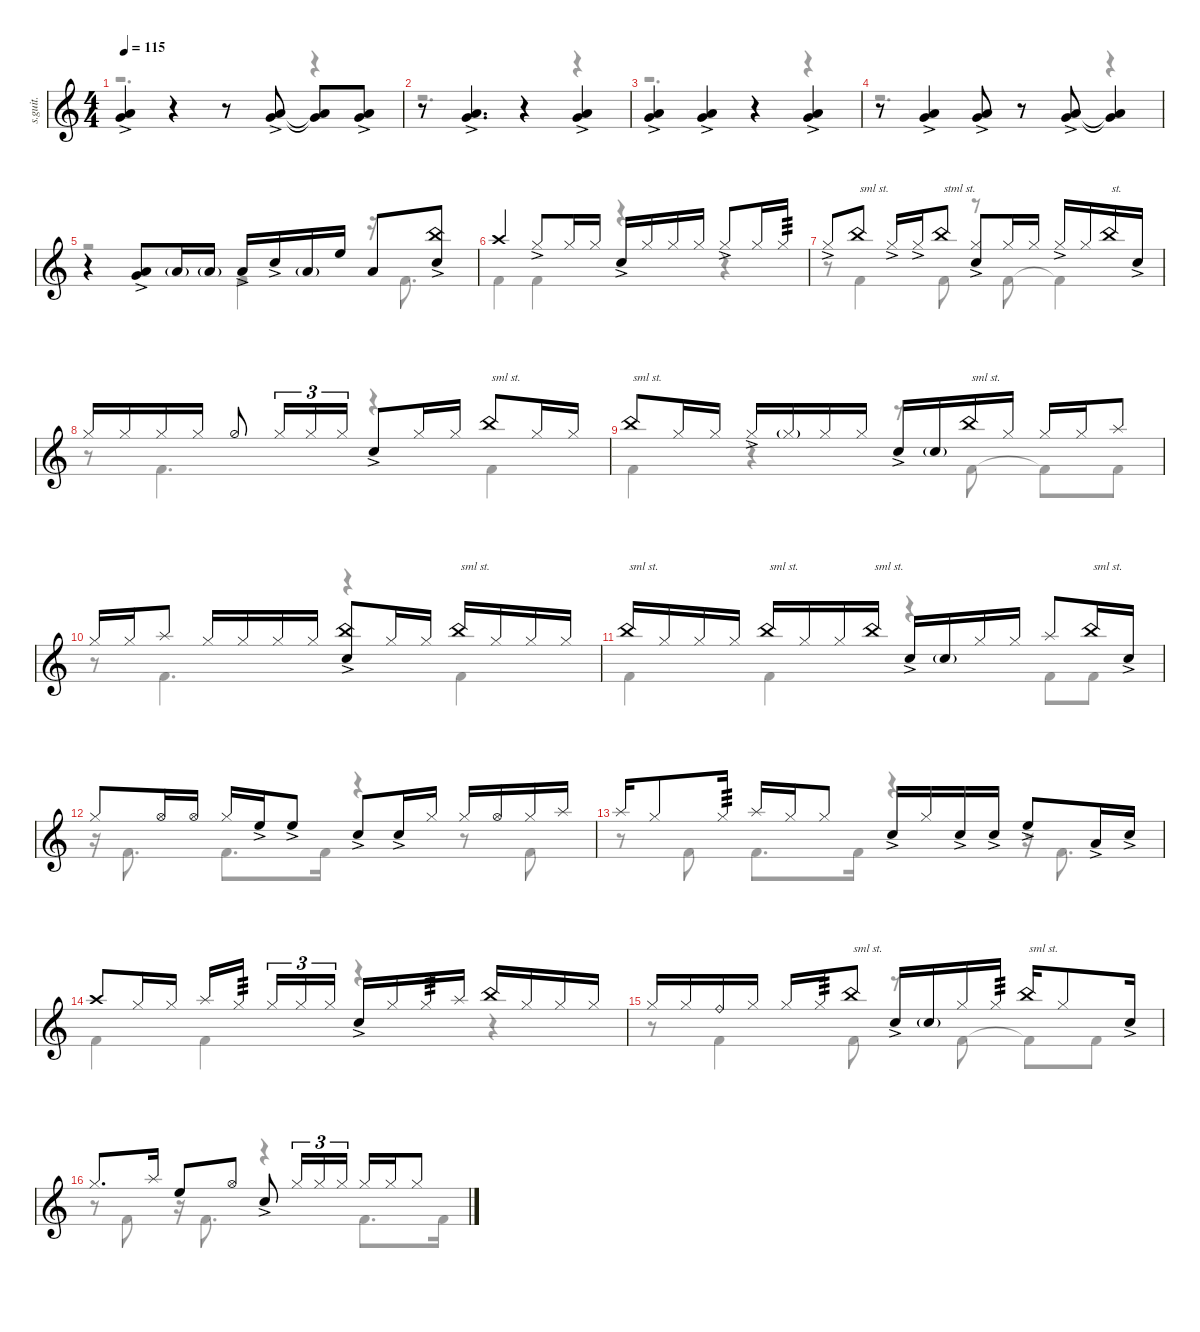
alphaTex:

\defaultSystemsLayout 4
\hideDynamics
\bracketExtendMode nobrackets
\track ("Percussion" "s.guit.") {instrument percussion}
\staff {score}
\articulation defaults
\voice
\ts (4 4)
\tempo 115
\clef g2
\ks c
("Very Low Tom (hit)"{ac} "Low Tom (hit)"{ac}).4{lyrics (0 "") lyrics (1 "") lyrics (2 "") lyrics (3 "") lyrics (4 "") dy mf} r.4 r.8 ("Very Low Tom (hit)"{ac} "Low Tom (hit)"{ac}).8{lyrics (0 "") lyrics (1 "") lyrics (2 "") lyrics (3 "") lyrics (4 "")} ("Very Low Tom (hit)"{t} "Low Tom (hit)"{t}).8{lyrics (0 "") lyrics (1 "") lyrics (2 "") lyrics (3 "") lyrics (4 "") dy f} ("Very Low Tom (hit)"{ac} "Low Tom (hit)"{ac}).8{lyrics (0 "") lyrics (1 "") lyrics (2 "") lyrics (3 "") lyrics (4 "") dy mf} |
r.8 ("Very Low Tom (hit)"{ac} "Low Tom (hit)"{ac}).4{d lyrics (0 "") lyrics (1 "") lyrics (2 "") lyrics (3 "") lyrics (4 "")} r.4 ("Low Tom (hit)"{ac} "Very Low Tom (hit)"{ac}).4{lyrics (0 "") lyrics (1 "") lyrics (2 "") lyrics (3 "") lyrics (4 "")} |
("Low Tom (hit)"{ac} "Very Low Tom (hit)"{ac}).4{lyrics (0 "") lyrics (1 "") lyrics (2 "") lyrics (3 "") lyrics (4 "")} ("Very Low Tom (hit)"{ac} "Low Tom (hit)"{ac}).4{lyrics (0 "") lyrics (1 "") lyrics (2 "") lyrics (3 "") lyrics (4 "")} r.4 ("Very Low Tom (hit)"{ac} "Low Tom (hit)"{ac}).4{lyrics (0 "") lyrics (1 "") lyrics (2 "") lyrics (3 "") lyrics (4 "")} |
r.8 ("Very Low Tom (hit)"{ac} "Low Tom (hit)"{ac}).4{lyrics (0 "") lyrics (1 "") lyrics (2 "") lyrics (3 "") lyrics (4 "")} ("Very Low Tom (hit)"{ac} "Low Tom (hit)"{ac}).8{lyrics (0 "") lyrics (1 "") lyrics (2 "") lyrics (3 "") lyrics (4 "")} r.8 ("Very Low Tom (hit)"{ac} "Low Tom (hit)"{ac}).8{lyrics (0 "") lyrics (1 "") lyrics (2 "") lyrics (3 "") lyrics (4 "")} ("Very Low Tom (hit)"{t} "Low Tom (hit)"{t}).4{lyrics (0 "") lyrics (1 "") lyrics (2 "") lyrics (3 "") lyrics (4 "") dy f} |
r.4 ("Very Low Tom (hit)"{ac} "Low Tom (hit)"{ac}).8{lyrics (0 "") lyrics (1 "") lyrics (2 "") lyrics (3 "") lyrics (4 "") dy mf} "Low Tom (hit)"{g}.16{lyrics (0 "") lyrics (1 "") lyrics (2 "") lyrics (3 "") lyrics (4 "") dy ff} "Low Tom (hit)"{g}.16{lyrics (0 "") lyrics (1 "") lyrics (2 "") lyrics (3 "") lyrics (4 "")} "Low Tom (hit)"{ac}.16{lyrics (0 "") lyrics (1 "") lyrics (2 "") lyrics (3 "") lyrics (4 "") dy mf} "Snare (hit) 2"{ac}.16{lyrics (0 "") lyrics (1 "") lyrics (2 "") lyrics (3 "") lyrics (4 "")} "Low Tom (hit)"{g}.16{lyrics (0 "") lyrics (1 "") lyrics (2 "") lyrics (3 "") lyrics (4 "") dy ff} "High Floor Tom (hit)".16{lyrics (0 "") lyrics (1 "") lyrics (2 "") lyrics (3 "") lyrics (4 "") dy f} "Low Tom (hit)".8{lyrics (0 "") lyrics (1 "") lyrics (2 "") lyrics (3 "") lyrics (4 "")} ("Snare (hit) 2"{ac} "China (hit)").8{lyrics (0 "") lyrics (1 "") lyrics (2 "") lyrics (3 "") lyrics (4 "")} |
"Crash high (hit)".4{lyrics (0 "") lyrics (1 "") lyrics (2 "") lyrics (3 "") lyrics (4 "") dy mf} "Hi-Hat (closed)"{ac}.8{lyrics (0 "") lyrics (1 "") lyrics (2 "") lyrics (3 "") lyrics (4 "") dy mp} "Hi-Hat (closed)".16{lyrics (0 "") lyrics (1 "") lyrics (2 "") lyrics (3 "") lyrics (4 "") dy mf} "Hi-Hat (closed)".16{lyrics (0 "") lyrics (1 "") lyrics (2 "") lyrics (3 "") lyrics (4 "")} "Snare (hit) 2"{ac}.16{lyrics (0 "") lyrics (1 "") lyrics (2 "") lyrics (3 "") lyrics (4 "") dy mp} "Hi-Hat (closed)".16{lyrics (0 "") lyrics (1 "") lyrics (2 "") lyrics (3 "") lyrics (4 "") dy mf} "Hi-Hat (closed)".16{lyrics (0 "") lyrics (1 "") lyrics (2 "") lyrics (3 "") lyrics (4 "")} "Hi-Hat (closed)".16{lyrics (0 "") lyrics (1 "") lyrics (2 "") lyrics (3 "") lyrics (4 "")} "Hi-Hat (closed)"{ac}.8{lyrics (0 "") lyrics (1 "") lyrics (2 "") lyrics (3 "") lyrics (4 "") dy mp} "Hi-Hat (closed)".16{lyrics (0 "") lyrics (1 "") lyrics (2 "") lyrics (3 "") lyrics (4 "") dy mf} "Hi-Hat (closed)".16{lyrics (0 "") lyrics (1 "") lyrics (2 "") lyrics (3 "") lyrics (4 "") tp 3} |
"Hi-Hat (closed)"{ac}.8{lyrics (0 "") lyrics (1 "") lyrics (2 "") lyrics (3 "") lyrics (4 "") dy mp} "China (hit)".8{txt "sml st." lyrics (0 "") lyrics (1 "") lyrics (2 "") lyrics (3 "") lyrics (4 "") dy mf} "Hi-Hat (closed)"{ac}.16{lyrics (0 "") lyrics (1 "") lyrics (2 "") lyrics (3 "") lyrics (4 "") dy mp} "Hi-Hat (closed)"{ac}.16{lyrics (0 "") lyrics (1 "") lyrics (2 "") lyrics (3 "") lyrics (4 "")} "China (hit)".8{txt "stml st." lyrics (0 "") lyrics (1 "") lyrics (2 "") lyrics (3 "") lyrics (4 "") dy mf} ("Snare (hit) 2"{ac} "Hi-Hat (closed)").8{lyrics (0 "") lyrics (1 "") lyrics (2 "") lyrics (3 "") lyrics (4 "")} "Hi-Hat (closed)".16{lyrics (0 "") lyrics (1 "") lyrics (2 "") lyrics (3 "") lyrics (4 "")} "Hi-Hat (closed)".16{lyrics (0 "") lyrics (1 "") lyrics (2 "") lyrics (3 "") lyrics (4 "")} "Hi-Hat (closed)"{ac}.16{lyrics (0 "") lyrics (1 "") lyrics (2 "") lyrics (3 "") lyrics (4 "") dy mp} "Hi-Hat (closed)".16{lyrics (0 "") lyrics (1 "") lyrics (2 "") lyrics (3 "") lyrics (4 "") dy mf} "China (hit)".16{txt "st." lyrics (0 "") lyrics (1 "") lyrics (2 "") lyrics (3 "") lyrics (4 "")} "Snare (hit) 2"{ac}.16{lyrics (0 "") lyrics (1 "") lyrics (2 "") lyrics (3 "") lyrics (4 "") dy mp} |
"Hi-Hat (closed)".16{lyrics (0 "") lyrics (1 "") lyrics (2 "") lyrics (3 "") lyrics (4 "") dy mf} "Hi-Hat (closed)".16{lyrics (0 "") lyrics (1 "") lyrics (2 "") lyrics (3 "") lyrics (4 "")} "Hi-Hat (closed)".16{lyrics (0 "") lyrics (1 "") lyrics (2 "") lyrics (3 "") lyrics (4 "")} "Hi-Hat (closed)".16{lyrics (0 "") lyrics (1 "") lyrics (2 "") lyrics (3 "") lyrics (4 "")} "Hi-Hat (half)".8{lyrics (0 "") lyrics (1 "") lyrics (2 "") lyrics (3 "") lyrics (4 "")} "Hi-Hat (closed)".16{tu (3 2) lyrics (0 "") lyrics (1 "") lyrics (2 "") lyrics (3 "") lyrics (4 "")} "Hi-Hat (closed)".16{tu (3 2) lyrics (0 "") lyrics (1 "") lyrics (2 "") lyrics (3 "") lyrics (4 "")} "Hi-Hat (closed)".16{tu (3 2) lyrics (0 "") lyrics (1 "") lyrics (2 "") lyrics (3 "") lyrics (4 "")} "Snare (hit) 2"{ac}.8{lyrics (0 "") lyrics (1 "") lyrics (2 "") lyrics (3 "") lyrics (4 "") dy mp} "Hi-Hat (closed)".16{lyrics (0 "") lyrics (1 "") lyrics (2 "") lyrics (3 "") lyrics (4 "") dy mf} "Hi-Hat (closed)".16{lyrics (0 "") lyrics (1 "") lyrics (2 "") lyrics (3 "") lyrics (4 "")} "China (hit)".8{txt "sml st." lyrics (0 "") lyrics (1 "") lyrics (2 "") lyrics (3 "") lyrics (4 "")} "Hi-Hat (closed)".16{lyrics (0 "") lyrics (1 "") lyrics (2 "") lyrics (3 "") lyrics (4 "")} "Hi-Hat (closed)".16{lyrics (0 "") lyrics (1 "") lyrics (2 "") lyrics (3 "") lyrics (4 "")} |
"China (hit)".8{txt "sml st." lyrics (0 "") lyrics (1 "") lyrics (2 "") lyrics (3 "") lyrics (4 "")} "Hi-Hat (closed)".16{lyrics (0 "") lyrics (1 "") lyrics (2 "") lyrics (3 "") lyrics (4 "")} "Hi-Hat (closed)".16{lyrics (0 "") lyrics (1 "") lyrics (2 "") lyrics (3 "") lyrics (4 "")} "Hi-Hat (closed)"{ac}.16{lyrics (0 "") lyrics (1 "") lyrics (2 "") lyrics (3 "") lyrics (4 "") dy mp} "Hi-Hat (closed)"{g}.16{lyrics (0 "") lyrics (1 "") lyrics (2 "") lyrics (3 "") lyrics (4 "") dy f} "Hi-Hat (closed)".16{lyrics (0 "") lyrics (1 "") lyrics (2 "") lyrics (3 "") lyrics (4 "") dy mf} "Hi-Hat (closed)".16{lyrics (0 "") lyrics (1 "") lyrics (2 "") lyrics (3 "") lyrics (4 "")} "Snare (hit) 2"{ac}.16{lyrics (0 "") lyrics (1 "") lyrics (2 "") lyrics (3 "") lyrics (4 "") dy mp} "Snare (hit) 2"{g}.16{lyrics (0 "") lyrics (1 "") lyrics (2 "") lyrics (3 "") lyrics (4 "") dy f} "China (hit)".16{txt "sml st." lyrics (0 "") lyrics (1 "") lyrics (2 "") lyrics (3 "") lyrics (4 "") dy mf} "Hi-Hat (closed)".16{lyrics (0 "") lyrics (1 "") lyrics (2 "") lyrics (3 "") lyrics (4 "")} "Hi-Hat (closed)".16{lyrics (0 "") lyrics (1 "") lyrics (2 "") lyrics (3 "") lyrics (4 "")} "Hi-Hat (closed)".16{lyrics (0 "") lyrics (1 "") lyrics (2 "") lyrics (3 "") lyrics (4 "")} "Splash (hit)".8{lyrics (0 "") lyrics (1 "") lyrics (2 "") lyrics (3 "") lyrics (4 "")} |
"Hi-Hat (closed)".16{lyrics (0 "") lyrics (1 "") lyrics (2 "") lyrics (3 "") lyrics (4 "")} "Hi-Hat (closed)".16{lyrics (0 "") lyrics (1 "") lyrics (2 "") lyrics (3 "") lyrics (4 "")} "Splash (hit)".8{lyrics (0 "") lyrics (1 "") lyrics (2 "") lyrics (3 "") lyrics (4 "")} "Hi-Hat (closed)".16{lyrics (0 "") lyrics (1 "") lyrics (2 "") lyrics (3 "") lyrics (4 "")} "Hi-Hat (closed)".16{lyrics (0 "") lyrics (1 "") lyrics (2 "") lyrics (3 "") lyrics (4 "")} "Hi-Hat (closed)".16{lyrics (0 "") lyrics (1 "") lyrics (2 "") lyrics (3 "") lyrics (4 "")} "Hi-Hat (closed)".16{lyrics (0 "") lyrics (1 "") lyrics (2 "") lyrics (3 "") lyrics (4 "")} ("China (hit)" "Snare (hit) 2"{ac}).8{lyrics (0 "") lyrics (1 "") lyrics (2 "") lyrics (3 "") lyrics (4 "")} "Hi-Hat (closed)".16{lyrics (0 "") lyrics (1 "") lyrics (2 "") lyrics (3 "") lyrics (4 "")} "Hi-Hat (closed)".16{lyrics (0 "") lyrics (1 "") lyrics (2 "") lyrics (3 "") lyrics (4 "")} "China (hit)".16{txt "sml st." lyrics (0 "") lyrics (1 "") lyrics (2 "") lyrics (3 "") lyrics (4 "")} "Hi-Hat (closed)".16{lyrics (0 "") lyrics (1 "") lyrics (2 "") lyrics (3 "") lyrics (4 "")} "Hi-Hat (closed)".16{lyrics (0 "") lyrics (1 "") lyrics (2 "") lyrics (3 "") lyrics (4 "")} "Hi-Hat (closed)".16{lyrics (0 "") lyrics (1 "") lyrics (2 "") lyrics (3 "") lyrics (4 "")} |
"China (hit)".16{txt "sml st." lyrics (0 "") lyrics (1 "") lyrics (2 "") lyrics (3 "") lyrics (4 "")} "Hi-Hat (closed)".16{lyrics (0 "") lyrics (1 "") lyrics (2 "") lyrics (3 "") lyrics (4 "")} "Hi-Hat (closed)".16{lyrics (0 "") lyrics (1 "") lyrics (2 "") lyrics (3 "") lyrics (4 "")} "Hi-Hat (closed)".16{lyrics (0 "") lyrics (1 "") lyrics (2 "") lyrics (3 "") lyrics (4 "")} "China (hit)".16{txt "sml st." lyrics (0 "") lyrics (1 "") lyrics (2 "") lyrics (3 "") lyrics (4 "")} "Hi-Hat (closed)".16{lyrics (0 "") lyrics (1 "") lyrics (2 "") lyrics (3 "") lyrics (4 "")} "Hi-Hat (closed)".16{lyrics (0 "") lyrics (1 "") lyrics (2 "") lyrics (3 "") lyrics (4 "")} "China (hit)".16{txt "sml st." lyrics (0 "") lyrics (1 "") lyrics (2 "") lyrics (3 "") lyrics (4 "")} "Snare (hit) 2"{ac}.16{lyrics (0 "") lyrics (1 "") lyrics (2 "") lyrics (3 "") lyrics (4 "") dy mp} "Snare (hit) 2"{g}.16{lyrics (0 "") lyrics (1 "") lyrics (2 "") lyrics (3 "") lyrics (4 "") dy f} "Hi-Hat (closed)".16{lyrics (0 "") lyrics (1 "") lyrics (2 "") lyrics (3 "") lyrics (4 "") dy mf} "Hi-Hat (closed)".16{lyrics (0 "") lyrics (1 "") lyrics (2 "") lyrics (3 "") lyrics (4 "")} "Splash (hit)".8{lyrics (0 "") lyrics (1 "") lyrics (2 "") lyrics (3 "") lyrics (4 "")} "China (hit)".16{txt "sml st." lyrics (0 "") lyrics (1 "") lyrics (2 "") lyrics (3 "") lyrics (4 "")} "Snare (hit) 2"{ac}.16{lyrics (0 "") lyrics (1 "") lyrics (2 "") lyrics (3 "") lyrics (4 "") dy mp} |
"Hi-Hat (closed)".8{lyrics (0 "") lyrics (1 "") lyrics (2 "") lyrics (3 "") lyrics (4 "") dy mf} "Hi-Hat (open)".16{lyrics (0 "") lyrics (1 "") lyrics (2 "") lyrics (3 "") lyrics (4 "")} "Hi-Hat (open)".16{lyrics (0 "") lyrics (1 "") lyrics (2 "") lyrics (3 "") lyrics (4 "")} "Hi-Hat (closed)".16{lyrics (0 "") lyrics (1 "") lyrics (2 "") lyrics (3 "") lyrics (4 "")} "High Floor Tom (hit)"{ac}.16{lyrics (0 "") lyrics (1 "") lyrics (2 "") lyrics (3 "") lyrics (4 "") dy mp} "High Floor Tom (hit)"{ac}.8{lyrics (0 "") lyrics (1 "") lyrics (2 "") lyrics (3 "") lyrics (4 "")} "Snare (hit) 2"{ac}.8{lyrics (0 "") lyrics (1 "") lyrics (2 "") lyrics (3 "") lyrics (4 "")} "Snare (hit) 2"{ac}.16{lyrics (0 "") lyrics (1 "") lyrics (2 "") lyrics (3 "") lyrics (4 "")} "Hi-Hat (closed)".16{lyrics (0 "") lyrics (1 "") lyrics (2 "") lyrics (3 "") lyrics (4 "") dy mf} "Hi-Hat (closed)".16{lyrics (0 "") lyrics (1 "") lyrics (2 "") lyrics (3 "") lyrics (4 "")} "Hi-Hat (open)".16{lyrics (0 "") lyrics (1 "") lyrics (2 "") lyrics (3 "") lyrics (4 "")} "Hi-Hat (closed)".16{lyrics (0 "") lyrics (1 "") lyrics (2 "") lyrics (3 "") lyrics (4 "")} "Splash (hit)".16{lyrics (0 "") lyrics (1 "") lyrics (2 "") lyrics (3 "") lyrics (4 "")} |
"Splash (hit)".16{lyrics (0 "") lyrics (1 "") lyrics (2 "") lyrics (3 "") lyrics (4 "")} "Hi-Hat (closed)".8{lyrics (0 "") lyrics (1 "") lyrics (2 "") lyrics (3 "") lyrics (4 "")} "Hi-Hat (closed)".16{lyrics (0 "") lyrics (1 "") lyrics (2 "") lyrics (3 "") lyrics (4 "") tp 3} "Splash (hit)".16{lyrics (0 "") lyrics (1 "") lyrics (2 "") lyrics (3 "") lyrics (4 "")} "Hi-Hat (closed)".16{lyrics (0 "") lyrics (1 "") lyrics (2 "") lyrics (3 "") lyrics (4 "")} "Hi-Hat (closed)".8{lyrics (0 "") lyrics (1 "") lyrics (2 "") lyrics (3 "") lyrics (4 "")} "Snare (hit) 2"{ac}.16{lyrics (0 "") lyrics (1 "") lyrics (2 "") lyrics (3 "") lyrics (4 "") dy mp} "Hi-Hat (closed)".16{lyrics (0 "") lyrics (1 "") lyrics (2 "") lyrics (3 "") lyrics (4 "") dy mf} "Snare (hit) 2"{ac}.16{lyrics (0 "") lyrics (1 "") lyrics (2 "") lyrics (3 "") lyrics (4 "") dy mp} "Snare (hit) 2"{ac}.16{lyrics (0 "") lyrics (1 "") lyrics (2 "") lyrics (3 "") lyrics (4 "")} "High Floor Tom (hit)"{ac}.8{lyrics (0 "") lyrics (1 "") lyrics (2 "") lyrics (3 "") lyrics (4 "")} "Low Tom (hit)"{ac}.16{lyrics (0 "") lyrics (1 "") lyrics (2 "") lyrics (3 "") lyrics (4 "")} "Snare (hit) 2"{ac}.16{lyrics (0 "") lyrics (1 "") lyrics (2 "") lyrics (3 "") lyrics (4 "")} |
"Crash high (hit)".8{lyrics (0 "") lyrics (1 "") lyrics (2 "") lyrics (3 "") lyrics (4 "") dy mf} "Hi-Hat (closed)".16{lyrics (0 "") lyrics (1 "") lyrics (2 "") lyrics (3 "") lyrics (4 "")} "Hi-Hat (closed)".16{lyrics (0 "") lyrics (1 "") lyrics (2 "") lyrics (3 "") lyrics (4 "")} "Splash (hit)".16{lyrics (0 "") lyrics (1 "") lyrics (2 "") lyrics (3 "") lyrics (4 "")} "Hi-Hat (closed)".16{lyrics (0 "") lyrics (1 "") lyrics (2 "") lyrics (3 "") lyrics (4 "") tp 3} "Hi-Hat (closed)".16{tu (3 2) lyrics (0 "") lyrics (1 "") lyrics (2 "") lyrics (3 "") lyrics (4 "")} "Hi-Hat (closed)".16{tu (3 2) lyrics (0 "") lyrics (1 "") lyrics (2 "") lyrics (3 "") lyrics (4 "")} "Hi-Hat (closed)".16{tu (3 2) lyrics (0 "") lyrics (1 "") lyrics (2 "") lyrics (3 "") lyrics (4 "")} "Snare (hit) 2"{ac}.16{lyrics (0 "") lyrics (1 "") lyrics (2 "") lyrics (3 "") lyrics (4 "") dy mp} "Hi-Hat (closed)".16{lyrics (0 "") lyrics (1 "") lyrics (2 "") lyrics (3 "") lyrics (4 "") dy mf} "Hi-Hat (closed)".16{lyrics (0 "") lyrics (1 "") lyrics (2 "") lyrics (3 "") lyrics (4 "") tp 3} "Splash (hit)".16{lyrics (0 "") lyrics (1 "") lyrics (2 "") lyrics (3 "") lyrics (4 "")} "China (hit)".16{lyrics (0 "") lyrics (1 "") lyrics (2 "") lyrics (3 "") lyrics (4 "")} "Hi-Hat (closed)".16{lyrics (0 "") lyrics (1 "") lyrics (2 "") lyrics (3 "") lyrics (4 "")} "Hi-Hat (closed)".16{lyrics (0 "") lyrics (1 "") lyrics (2 "") lyrics (3 "") lyrics (4 "")} "Hi-Hat (closed)".16{lyrics (0 "") lyrics (1 "") lyrics (2 "") lyrics (3 "") lyrics (4 "")} |
"Hi-Hat (closed)".16{lyrics (0 "") lyrics (1 "") lyrics (2 "") lyrics (3 "") lyrics (4 "")} "Hi-Hat (closed)".16{lyrics (0 "") lyrics (1 "") lyrics (2 "") lyrics (3 "") lyrics (4 "")} "Ride (bell)".16{lyrics (0 "") lyrics (1 "") lyrics (2 "") lyrics (3 "") lyrics (4 "")} "Hi-Hat (closed)".16{lyrics (0 "") lyrics (1 "") lyrics (2 "") lyrics (3 "") lyrics (4 "")} "Hi-Hat (closed)".16{lyrics (0 "") lyrics (1 "") lyrics (2 "") lyrics (3 "") lyrics (4 "")} "Hi-Hat (closed)".16{lyrics (0 "") lyrics (1 "") lyrics (2 "") lyrics (3 "") lyrics (4 "") tp 3} "China (hit)".8{txt "sml st." lyrics (0 "") lyrics (1 "") lyrics (2 "") lyrics (3 "") lyrics (4 "")} "Snare (hit) 2"{ac}.16{lyrics (0 "") lyrics (1 "") lyrics (2 "") lyrics (3 "") lyrics (4 "") dy mp} "Snare (hit) 2"{g}.16{lyrics (0 "") lyrics (1 "") lyrics (2 "") lyrics (3 "") lyrics (4 "") dy f} "Hi-Hat (closed)".16{lyrics (0 "") lyrics (1 "") lyrics (2 "") lyrics (3 "") lyrics (4 "") dy mf} "Hi-Hat (closed)".16{lyrics (0 "") lyrics (1 "") lyrics (2 "") lyrics (3 "") lyrics (4 "") tp 3} "China (hit)".16{txt "sml st." lyrics (0 "") lyrics (1 "") lyrics (2 "") lyrics (3 "") lyrics (4 "")} "Hi-Hat (closed)".8{lyrics (0 "") lyrics (1 "") lyrics (2 "") lyrics (3 "") lyrics (4 "")} "Snare (hit) 2"{ac}.16{lyrics (0 "") lyrics (1 "") lyrics (2 "") lyrics (3 "") lyrics (4 "") dy mp} |
"Hi-Hat (closed)".8{d lyrics (0 "") lyrics (1 "") lyrics (2 "") lyrics (3 "") lyrics (4 "") dy mf} "Splash (hit)".16{lyrics (0 "") lyrics (1 "") lyrics (2 "") lyrics (3 "") lyrics (4 "")} "High Floor Tom (hit)".8{lyrics (0 "") lyrics (1 "") lyrics (2 "") lyrics (3 "") lyrics (4 "")} "Hi-Hat (open)".8{lyrics (0 "") lyrics (1 "") lyrics (2 "") lyrics (3 "") lyrics (4 "")} "Snare (hit) 2"{ac}.8{lyrics (0 "") lyrics (1 "") lyrics (2 "") lyrics (3 "") lyrics (4 "") dy mp} "Hi-Hat (closed)".16{tu (3 2) lyrics (0 "") lyrics (1 "") lyrics (2 "") lyrics (3 "") lyrics (4 "") dy mf} "Hi-Hat (closed)".16{tu (3 2) lyrics (0 "") lyrics (1 "") lyrics (2 "") lyrics (3 "") lyrics (4 "")} "Hi-Hat (closed)".16{tu (3 2) lyrics (0 "") lyrics (1 "") lyrics (2 "") lyrics (3 "") lyrics (4 "")} "Hi-Hat (closed)".16{lyrics (0 "") lyrics (1 "") lyrics (2 "") lyrics (3 "") lyrics (4 "")} "Hi-Hat (closed)".16{lyrics (0 "") lyrics (1 "") lyrics (2 "") lyrics (3 "") lyrics (4 "")} "Hi-Hat (closed)".8{lyrics (0 "") lyrics (1 "") lyrics (2 "") lyrics (3 "") lyrics (4 "")}
\voice
\clef g2
\ottava regular
\simile none
\ks c
r.2{d dy f} r.4 |
r.2{d} r.4 |
r.2{d} r.4 |
r.2{d} r.4 |
r.2 "Kick (hit) 2".4{lyrics (0 "") lyrics (1 "") lyrics (2 "") lyrics (3 "") lyrics (4 "")} r.16 "Kick (hit) 2".8{d lyrics (0 "") lyrics (1 "") lyrics (2 "") lyrics (3 "") lyrics (4 "")} |
"Kick (hit) 2".4{lyrics (0 "") lyrics (1 "") lyrics (2 "") lyrics (3 "") lyrics (4 "") dy mf} "Kick (hit) 2".4{lyrics (0 "") lyrics (1 "") lyrics (2 "") lyrics (3 "") lyrics (4 "")} r.4 r.4 |
r.8 "Kick (hit) 2".4{lyrics (0 "") lyrics (1 "") lyrics (2 "") lyrics (3 "") lyrics (4 "")} "Kick (hit) 2".8{lyrics (0 "") lyrics (1 "") lyrics (2 "") lyrics (3 "") lyrics (4 "")} r.8 "Kick (hit) 2".8{lyrics (0 "") lyrics (1 "") lyrics (2 "") lyrics (3 "") lyrics (4 "")} "Kick (hit) 2"{t}.4{lyrics (0 "") lyrics (1 "") lyrics (2 "") lyrics (3 "") lyrics (4 "")} |
r.8 "Kick (hit) 2".4{d lyrics (0 "") lyrics (1 "") lyrics (2 "") lyrics (3 "") lyrics (4 "")} r.4 "Kick (hit) 2".4{lyrics (0 "") lyrics (1 "") lyrics (2 "") lyrics (3 "") lyrics (4 "")} |
"Kick (hit) 2".4{lyrics (0 "") lyrics (1 "") lyrics (2 "") lyrics (3 "") lyrics (4 "")} r.4 r.8 "Kick (hit) 2".8{lyrics (0 "") lyrics (1 "") lyrics (2 "") lyrics (3 "") lyrics (4 "")} "Kick (hit) 2"{t}.8{lyrics (0 "") lyrics (1 "") lyrics (2 "") lyrics (3 "") lyrics (4 "")} "Kick (hit) 2".8{lyrics (0 "") lyrics (1 "") lyrics (2 "") lyrics (3 "") lyrics (4 "")} |
r.8 "Kick (hit) 2".4{d lyrics (0 "") lyrics (1 "") lyrics (2 "") lyrics (3 "") lyrics (4 "")} r.4 "Kick (hit) 2".4{lyrics (0 "") lyrics (1 "") lyrics (2 "") lyrics (3 "") lyrics (4 "")} |
"Kick (hit) 2".4{lyrics (0 "") lyrics (1 "") lyrics (2 "") lyrics (3 "") lyrics (4 "")} "Kick (hit) 2".4{lyrics (0 "") lyrics (1 "") lyrics (2 "") lyrics (3 "") lyrics (4 "")} r.4 "Kick (hit) 2".8{lyrics (0 "") lyrics (1 "") lyrics (2 "") lyrics (3 "") lyrics (4 "")} "Kick (hit) 2".8{lyrics (0 "") lyrics (1 "") lyrics (2 "") lyrics (3 "") lyrics (4 "")} |
r.16 "Kick (hit) 2".8{d lyrics (0 "") lyrics (1 "") lyrics (2 "") lyrics (3 "") lyrics (4 "")} "Kick (hit) 2".8{d lyrics (0 "") lyrics (1 "") lyrics (2 "") lyrics (3 "") lyrics (4 "")} "Kick (hit) 2".16{lyrics (0 "") lyrics (1 "") lyrics (2 "") lyrics (3 "") lyrics (4 "")} r.4 r.8 "Kick (hit) 2".8{lyrics (0 "") lyrics (1 "") lyrics (2 "") lyrics (3 "") lyrics (4 "")} |
r.8 "Kick (hit) 2".8{lyrics (0 "") lyrics (1 "") lyrics (2 "") lyrics (3 "") lyrics (4 "")} "Kick (hit) 2".8{d lyrics (0 "") lyrics (1 "") lyrics (2 "") lyrics (3 "") lyrics (4 "")} "Kick (hit) 2".16{lyrics (0 "") lyrics (1 "") lyrics (2 "") lyrics (3 "") lyrics (4 "")} r.4 r.16 "Kick (hit) 2".8{d lyrics (0 "") lyrics (1 "") lyrics (2 "") lyrics (3 "") lyrics (4 "")} |
"Kick (hit) 2".4{lyrics (0 "") lyrics (1 "") lyrics (2 "") lyrics (3 "") lyrics (4 "")} "Kick (hit) 2".4{lyrics (0 "") lyrics (1 "") lyrics (2 "") lyrics (3 "") lyrics (4 "")} r.4 r.4 |
r.8 "Kick (hit) 2".4{lyrics (0 "") lyrics (1 "") lyrics (2 "") lyrics (3 "") lyrics (4 "")} "Kick (hit) 2".8{lyrics (0 "") lyrics (1 "") lyrics (2 "") lyrics (3 "") lyrics (4 "")} r.8 "Kick (hit) 2".8{lyrics (0 "") lyrics (1 "") lyrics (2 "") lyrics (3 "") lyrics (4 "")} "Kick (hit) 2"{t}.8{lyrics (0 "") lyrics (1 "") lyrics (2 "") lyrics (3 "") lyrics (4 "")} "Kick (hit) 2".8{lyrics (0 "") lyrics (1 "") lyrics (2 "") lyrics (3 "") lyrics (4 "")} |
r.8 "Kick (hit) 2".8{lyrics (0 "") lyrics (1 "") lyrics (2 "") lyrics (3 "") lyrics (4 "")} r.16 "Kick (hit) 2".8{d lyrics (0 "") lyrics (1 "") lyrics (2 "") lyrics (3 "") lyrics (4 "")} r.4 "Kick (hit) 2".8{d lyrics (0 "") lyrics (1 "") lyrics (2 "") lyrics (3 "") lyrics (4 "")} "Kick (hit) 2".16{lyrics (0 "") lyrics (1 "") lyrics (2 "") lyrics (3 "") lyrics (4 "")}
